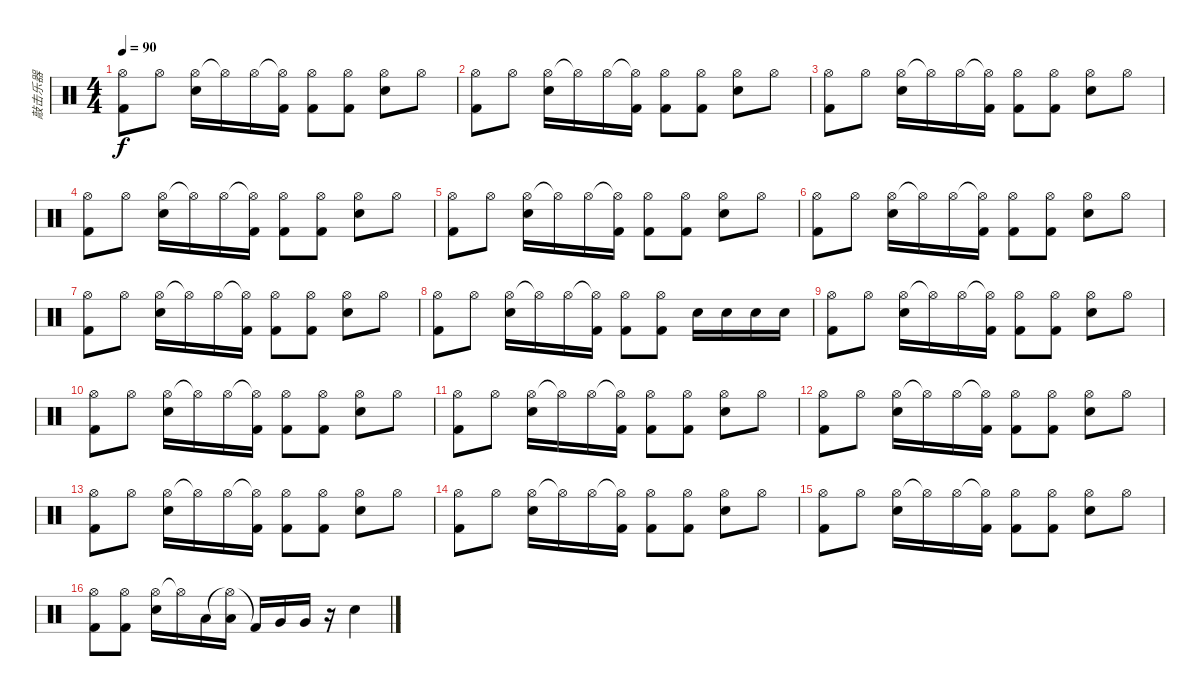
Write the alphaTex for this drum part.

\track ("敲击乐器" "敲击乐器") {instrument percussion}
\staff {score}
\articulation defaults
\ts (4 4)
\tempo 90
\clef neutral
\ks c
("Hi-Hat (open)" "Kick (hit) 2").8{dy f} "Hi-Hat (open)".8 ("Hi-Hat (open)" "Electric Snare (hit)").16 "Hi-Hat (open)"{t}.16 "Hi-Hat (open)".16 ("Hi-Hat (open)"{t} "Kick (hit) 2").16 ("Hi-Hat (open)" "Kick (hit) 2").8 ("Hi-Hat (open)" "Kick (hit) 2").8 ("Hi-Hat (open)" "Electric Snare (hit)").8 "Hi-Hat (open)".8 |
("Hi-Hat (open)" "Kick (hit) 2").8 "Hi-Hat (open)".8 ("Hi-Hat (open)" "Electric Snare (hit)").16 "Hi-Hat (open)"{t}.16 "Hi-Hat (open)".16 ("Hi-Hat (open)"{t} "Kick (hit) 2").16 ("Hi-Hat (open)" "Kick (hit) 2").8 ("Hi-Hat (open)" "Kick (hit) 2").8 ("Hi-Hat (open)" "Electric Snare (hit)").8 "Hi-Hat (open)".8 |
("Hi-Hat (open)" "Kick (hit) 2").8 "Hi-Hat (open)".8 ("Hi-Hat (open)" "Electric Snare (hit)").16 "Hi-Hat (open)"{t}.16 "Hi-Hat (open)".16 ("Hi-Hat (open)"{t} "Kick (hit) 2").16 ("Hi-Hat (open)" "Kick (hit) 2").8 ("Hi-Hat (open)" "Kick (hit) 2").8 ("Hi-Hat (open)" "Electric Snare (hit)").8 "Hi-Hat (open)".8 |
("Hi-Hat (open)" "Kick (hit) 2").8 "Hi-Hat (open)".8 ("Hi-Hat (open)" "Electric Snare (hit)").16 "Hi-Hat (open)"{t}.16 "Hi-Hat (open)".16 ("Hi-Hat (open)"{t} "Kick (hit) 2").16 ("Hi-Hat (open)" "Kick (hit) 2").8 ("Hi-Hat (open)" "Kick (hit) 2").8 ("Hi-Hat (open)" "Electric Snare (hit)").8 "Hi-Hat (open)".8 |
("Hi-Hat (open)" "Kick (hit) 2").8 "Hi-Hat (open)".8 ("Hi-Hat (open)" "Electric Snare (hit)").16 "Hi-Hat (open)"{t}.16 "Hi-Hat (open)".16 ("Hi-Hat (open)"{t} "Kick (hit) 2").16 ("Hi-Hat (open)" "Kick (hit) 2").8 ("Hi-Hat (open)" "Kick (hit) 2").8 ("Hi-Hat (open)" "Electric Snare (hit)").8 "Hi-Hat (open)".8 |
("Hi-Hat (open)" "Kick (hit) 2").8 "Hi-Hat (open)".8 ("Hi-Hat (open)" "Electric Snare (hit)").16 "Hi-Hat (open)"{t}.16 "Hi-Hat (open)".16 ("Hi-Hat (open)"{t} "Kick (hit) 2").16 ("Hi-Hat (open)" "Kick (hit) 2").8 ("Hi-Hat (open)" "Kick (hit) 2").8 ("Hi-Hat (open)" "Electric Snare (hit)").8 "Hi-Hat (open)".8 |
("Hi-Hat (open)" "Kick (hit) 2").8 "Hi-Hat (open)".8 ("Hi-Hat (open)" "Electric Snare (hit)").16 "Hi-Hat (open)"{t}.16 "Hi-Hat (open)".16 ("Hi-Hat (open)"{t} "Kick (hit) 2").16 ("Hi-Hat (open)" "Kick (hit) 2").8 ("Hi-Hat (open)" "Kick (hit) 2").8 ("Hi-Hat (open)" "Electric Snare (hit)").8 "Hi-Hat (open)".8 |
("Hi-Hat (open)" "Kick (hit) 2").8 "Hi-Hat (open)".8 ("Hi-Hat (open)" "Electric Snare (hit)").16 "Hi-Hat (open)"{t}.16 "Hi-Hat (open)".16 ("Hi-Hat (open)"{t} "Kick (hit) 2").16 ("Hi-Hat (open)" "Kick (hit) 2").8 ("Hi-Hat (open)" "Kick (hit) 2").8 "Electric Snare (hit)".16 "Electric Snare (hit)".16 "Electric Snare (hit)".16 "Electric Snare (hit)".16 |
("Hi-Hat (open)" "Kick (hit) 2").8 "Hi-Hat (open)".8 ("Hi-Hat (open)" "Electric Snare (hit)").16 "Hi-Hat (open)"{t}.16 "Hi-Hat (open)".16 ("Hi-Hat (open)"{t} "Kick (hit) 2").16 ("Hi-Hat (open)" "Kick (hit) 2").8 ("Hi-Hat (open)" "Kick (hit) 2").8 ("Hi-Hat (open)" "Electric Snare (hit)").8 "Hi-Hat (open)".8 |
("Hi-Hat (open)" "Kick (hit) 2").8 "Hi-Hat (open)".8 ("Hi-Hat (open)" "Electric Snare (hit)").16 "Hi-Hat (open)"{t}.16 "Hi-Hat (open)".16 ("Hi-Hat (open)"{t} "Kick (hit) 2").16 ("Hi-Hat (open)" "Kick (hit) 2").8 ("Hi-Hat (open)" "Kick (hit) 2").8 ("Hi-Hat (open)" "Electric Snare (hit)").8 "Hi-Hat (open)".8 |
("Hi-Hat (open)" "Kick (hit) 2").8 "Hi-Hat (open)".8 ("Hi-Hat (open)" "Electric Snare (hit)").16 "Hi-Hat (open)"{t}.16 "Hi-Hat (open)".16 ("Hi-Hat (open)"{t} "Kick (hit) 2").16 ("Hi-Hat (open)" "Kick (hit) 2").8 ("Hi-Hat (open)" "Kick (hit) 2").8 ("Hi-Hat (open)" "Electric Snare (hit)").8 "Hi-Hat (open)".8 |
("Hi-Hat (open)" "Kick (hit) 2").8 "Hi-Hat (open)".8 ("Hi-Hat (open)" "Electric Snare (hit)").16 "Hi-Hat (open)"{t}.16 "Hi-Hat (open)".16 ("Hi-Hat (open)"{t} "Kick (hit) 2").16 ("Hi-Hat (open)" "Kick (hit) 2").8 ("Hi-Hat (open)" "Kick (hit) 2").8 ("Hi-Hat (open)" "Electric Snare (hit)").8 "Hi-Hat (open)".8 |
("Hi-Hat (open)" "Kick (hit) 2").8 "Hi-Hat (open)".8 ("Hi-Hat (open)" "Electric Snare (hit)").16 "Hi-Hat (open)"{t}.16 "Hi-Hat (open)".16 ("Hi-Hat (open)"{t} "Kick (hit) 2").16 ("Hi-Hat (open)" "Kick (hit) 2").8 ("Hi-Hat (open)" "Kick (hit) 2").8 ("Hi-Hat (open)" "Electric Snare (hit)").8 "Hi-Hat (open)".8 |
("Hi-Hat (open)" "Kick (hit) 2").8 "Hi-Hat (open)".8 ("Hi-Hat (open)" "Electric Snare (hit)").16 "Hi-Hat (open)"{t}.16 "Hi-Hat (open)".16 ("Hi-Hat (open)"{t} "Kick (hit) 2").16 ("Hi-Hat (open)" "Kick (hit) 2").8 ("Hi-Hat (open)" "Kick (hit) 2").8 ("Hi-Hat (open)" "Electric Snare (hit)").8 "Hi-Hat (open)".8 |
("Hi-Hat (open)" "Kick (hit) 2").8 "Hi-Hat (open)".8 ("Hi-Hat (open)" "Electric Snare (hit)").16 "Hi-Hat (open)"{t}.16 "Hi-Hat (open)".16 ("Hi-Hat (open)"{t} "Kick (hit) 2").16 ("Hi-Hat (open)" "Kick (hit) 2").8 ("Hi-Hat (open)" "Kick (hit) 2").8 ("Hi-Hat (open)" "Electric Snare (hit)").8 "Hi-Hat (open)".8 |
("Hi-Hat (open)" "Kick (hit) 2").8 ("Hi-Hat (open)" "Kick (hit) 2").8 ("Hi-Hat (open)" "Electric Snare (hit)").16 "Hi-Hat (open)"{t}.16 "Low Tom (hit)".16 ("Hi-Hat (open)"{t} "Low Tom (hit)").16 "Kick (hit) 2"{t}.16 "Very Low Tom (hit)".16 "Very Low Tom (hit)".16 r.16 "Electric Snare (hit)".4
